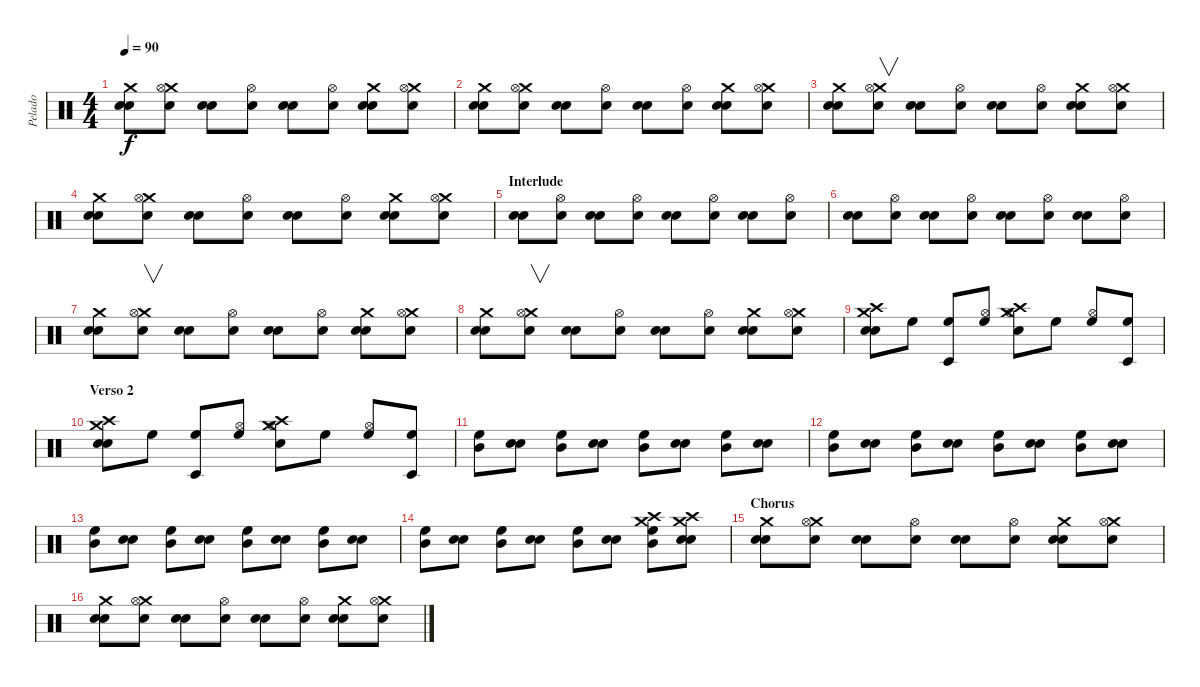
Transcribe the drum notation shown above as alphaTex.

\track ("Pelado" "Pelado") {instrument percussion}
\staff {score}
\articulation defaults
\ts (4 4)
\tempo 90
\clef neutral
\ks c
("Crash medium (hit)" "Electric Snare (hit)" "Electric Snare (hit)").8{dy f} ("Crash medium (hit)" "Hi-Hat (open)" "Electric Snare (hit)").8 ("Electric Snare (hit)" "Electric Snare (hit)").8 ("Electric Snare (hit)" "Hi-Hat (open)").8 ("Electric Snare (hit)" "Electric Snare (hit)").8 ("Electric Snare (hit)" "Hi-Hat (open)").8 ("Crash medium (hit)" "Electric Snare (hit)" "Electric Snare (hit)").8 ("Crash medium (hit)" "Electric Snare (hit)" "Hi-Hat (open)").8 |
("Crash medium (hit)" "Electric Snare (hit)" "Electric Snare (hit)").8 ("Crash medium (hit)" "Hi-Hat (open)" "Electric Snare (hit)").8 ("Electric Snare (hit)" "Electric Snare (hit)").8 ("Electric Snare (hit)" "Hi-Hat (open)").8 ("Electric Snare (hit)" "Electric Snare (hit)").8 ("Electric Snare (hit)" "Hi-Hat (open)").8 ("Crash medium (hit)" "Electric Snare (hit)" "Electric Snare (hit)").8 ("Crash medium (hit)" "Electric Snare (hit)" "Hi-Hat (open)").8 |
("Crash medium (hit)" "Electric Snare (hit)" "Electric Snare (hit)").8 ("Crash medium (hit)" "Hi-Hat (open)" "Electric Snare (hit)").8{v} ("Electric Snare (hit)" "Electric Snare (hit)").8 ("Electric Snare (hit)" "Hi-Hat (open)").8 ("Electric Snare (hit)" "Electric Snare (hit)").8 ("Electric Snare (hit)" "Hi-Hat (open)").8 ("Crash medium (hit)" "Electric Snare (hit)" "Electric Snare (hit)").8 ("Crash medium (hit)" "Electric Snare (hit)" "Hi-Hat (open)").8 |
("Crash medium (hit)" "Electric Snare (hit)" "Electric Snare (hit)").8 ("Crash medium (hit)" "Hi-Hat (open)" "Electric Snare (hit)").8 ("Electric Snare (hit)" "Electric Snare (hit)").8 ("Electric Snare (hit)" "Hi-Hat (open)").8 ("Electric Snare (hit)" "Electric Snare (hit)").8 ("Electric Snare (hit)" "Hi-Hat (open)").8 ("Crash medium (hit)" "Electric Snare (hit)" "Electric Snare (hit)").8 ("Crash medium (hit)" "Electric Snare (hit)" "Hi-Hat (open)").8 |
\section ("" "Interlude")
("Electric Snare (hit)" "Electric Snare (hit)").8 ("Hi-Hat (open)" "Electric Snare (hit)").8 ("Electric Snare (hit)" "Electric Snare (hit)").8 ("Electric Snare (hit)" "Hi-Hat (open)").8 ("Electric Snare (hit)" "Electric Snare (hit)").8 ("Electric Snare (hit)" "Hi-Hat (open)").8 ("Electric Snare (hit)" "Electric Snare (hit)").8 ("Electric Snare (hit)" "Hi-Hat (open)").8 |
("Electric Snare (hit)" "Electric Snare (hit)").8 ("Hi-Hat (open)" "Electric Snare (hit)").8 ("Electric Snare (hit)" "Electric Snare (hit)").8 ("Electric Snare (hit)" "Hi-Hat (open)").8 ("Electric Snare (hit)" "Electric Snare (hit)").8 ("Electric Snare (hit)" "Hi-Hat (open)").8 ("Electric Snare (hit)" "Electric Snare (hit)").8 ("Electric Snare (hit)" "Hi-Hat (open)").8 |
("Crash medium (hit)" "Electric Snare (hit)" "Electric Snare (hit)").8 ("Crash medium (hit)" "Hi-Hat (open)" "Electric Snare (hit)").8{v} ("Electric Snare (hit)" "Electric Snare (hit)").8 ("Electric Snare (hit)" "Hi-Hat (open)").8 ("Electric Snare (hit)" "Electric Snare (hit)").8 ("Electric Snare (hit)" "Hi-Hat (open)").8 ("Crash medium (hit)" "Electric Snare (hit)" "Electric Snare (hit)").8 ("Crash medium (hit)" "Electric Snare (hit)" "Hi-Hat (open)").8 |
("Crash medium (hit)" "Electric Snare (hit)" "Electric Snare (hit)").8 ("Crash medium (hit)" "Hi-Hat (open)" "Electric Snare (hit)").8{v} ("Electric Snare (hit)" "Electric Snare (hit)").8 ("Electric Snare (hit)" "Hi-Hat (open)").8 ("Electric Snare (hit)" "Electric Snare (hit)").8 ("Electric Snare (hit)" "Hi-Hat (open)").8 ("Crash medium (hit)" "Electric Snare (hit)" "Electric Snare (hit)").8 ("Crash medium (hit)" "Electric Snare (hit)" "Hi-Hat (open)").8 |
("Crash high (hit)" "Crash medium (hit)" "Electric Snare (hit)" "Electric Snare (hit)").8 "High Floor Tom (hit)".8 ("High Floor Tom (hit)" "Timbale low (hit)").8 ("High Floor Tom (hit)" "Hi-Hat (open)").8 ("Crash high (hit)" "Crash medium (hit)" "Electric Snare (hit)" "Hi-Hat (open)").8 "High Floor Tom (hit)".8 ("High Floor Tom (hit)" "Hi-Hat (open)").8 ("High Floor Tom (hit)" "Timbale low (hit)").8 |
\section ("" "Verso 2")
("Crash high (hit)" "Crash medium (hit)" "Electric Snare (hit)" "Electric Snare (hit)").8 "High Floor Tom (hit)".8 ("High Floor Tom (hit)" "Timbale low (hit)").8 ("High Floor Tom (hit)" "Hi-Hat (open)").8 ("Crash high (hit)" "Crash medium (hit)" "Electric Snare (hit)" "Hi-Hat (open)").8 "High Floor Tom (hit)".8 ("High Floor Tom (hit)" "Hi-Hat (open)").8 ("High Floor Tom (hit)" "Timbale low (hit)").8 |
("High Floor Tom (hit)" "Mid Tom (hit)").8 ("Electric Snare (hit)" "Electric Snare (hit)").8 ("High Floor Tom (hit)" "Mid Tom (hit)").8 ("Electric Snare (hit)" "Electric Snare (hit)").8 ("High Floor Tom (hit)" "Mid Tom (hit)").8 ("Electric Snare (hit)" "Electric Snare (hit)").8 ("High Floor Tom (hit)" "Mid Tom (hit)").8 ("Electric Snare (hit)" "Electric Snare (hit)").8 |
("High Floor Tom (hit)" "Mid Tom (hit)").8 ("Electric Snare (hit)" "Electric Snare (hit)").8 ("High Floor Tom (hit)" "Mid Tom (hit)").8 ("Electric Snare (hit)" "Electric Snare (hit)").8 ("High Floor Tom (hit)" "Mid Tom (hit)").8 ("Electric Snare (hit)" "Electric Snare (hit)").8 ("High Floor Tom (hit)" "Mid Tom (hit)").8 ("Electric Snare (hit)" "Electric Snare (hit)").8 |
("High Floor Tom (hit)" "Mid Tom (hit)").8 ("Electric Snare (hit)" "Electric Snare (hit)").8 ("High Floor Tom (hit)" "Mid Tom (hit)").8 ("Electric Snare (hit)" "Electric Snare (hit)").8 ("High Floor Tom (hit)" "Mid Tom (hit)").8 ("Electric Snare (hit)" "Electric Snare (hit)").8 ("High Floor Tom (hit)" "Mid Tom (hit)").8 ("Electric Snare (hit)" "Electric Snare (hit)").8 |
("High Floor Tom (hit)" "Mid Tom (hit)").8 ("Electric Snare (hit)" "Electric Snare (hit)").8 ("High Floor Tom (hit)" "Mid Tom (hit)").8 ("Electric Snare (hit)" "Electric Snare (hit)").8 ("High Floor Tom (hit)" "Mid Tom (hit)").8 ("Electric Snare (hit)" "Electric Snare (hit)").8 ("Crash high (hit)" "Crash medium (hit)" "High Floor Tom (hit)" "Mid Tom (hit)").8 ("Crash high (hit)" "Crash medium (hit)" "Electric Snare (hit)" "Electric Snare (hit)").8 |
\section ("" "Chorus")
("Crash medium (hit)" "Electric Snare (hit)" "Electric Snare (hit)").8 ("Crash medium (hit)" "Hi-Hat (open)" "Electric Snare (hit)").8 ("Electric Snare (hit)" "Electric Snare (hit)").8 ("Electric Snare (hit)" "Hi-Hat (open)").8 ("Electric Snare (hit)" "Electric Snare (hit)").8 ("Electric Snare (hit)" "Hi-Hat (open)").8 ("Crash medium (hit)" "Electric Snare (hit)" "Electric Snare (hit)").8 ("Crash medium (hit)" "Electric Snare (hit)" "Hi-Hat (open)").8 |
("Crash medium (hit)" "Electric Snare (hit)" "Electric Snare (hit)").8 ("Crash medium (hit)" "Hi-Hat (open)" "Electric Snare (hit)").8 ("Electric Snare (hit)" "Electric Snare (hit)").8 ("Electric Snare (hit)" "Hi-Hat (open)").8 ("Electric Snare (hit)" "Electric Snare (hit)").8 ("Electric Snare (hit)" "Hi-Hat (open)").8 ("Crash medium (hit)" "Electric Snare (hit)" "Electric Snare (hit)").8 ("Crash medium (hit)" "Electric Snare (hit)" "Hi-Hat (open)").8
